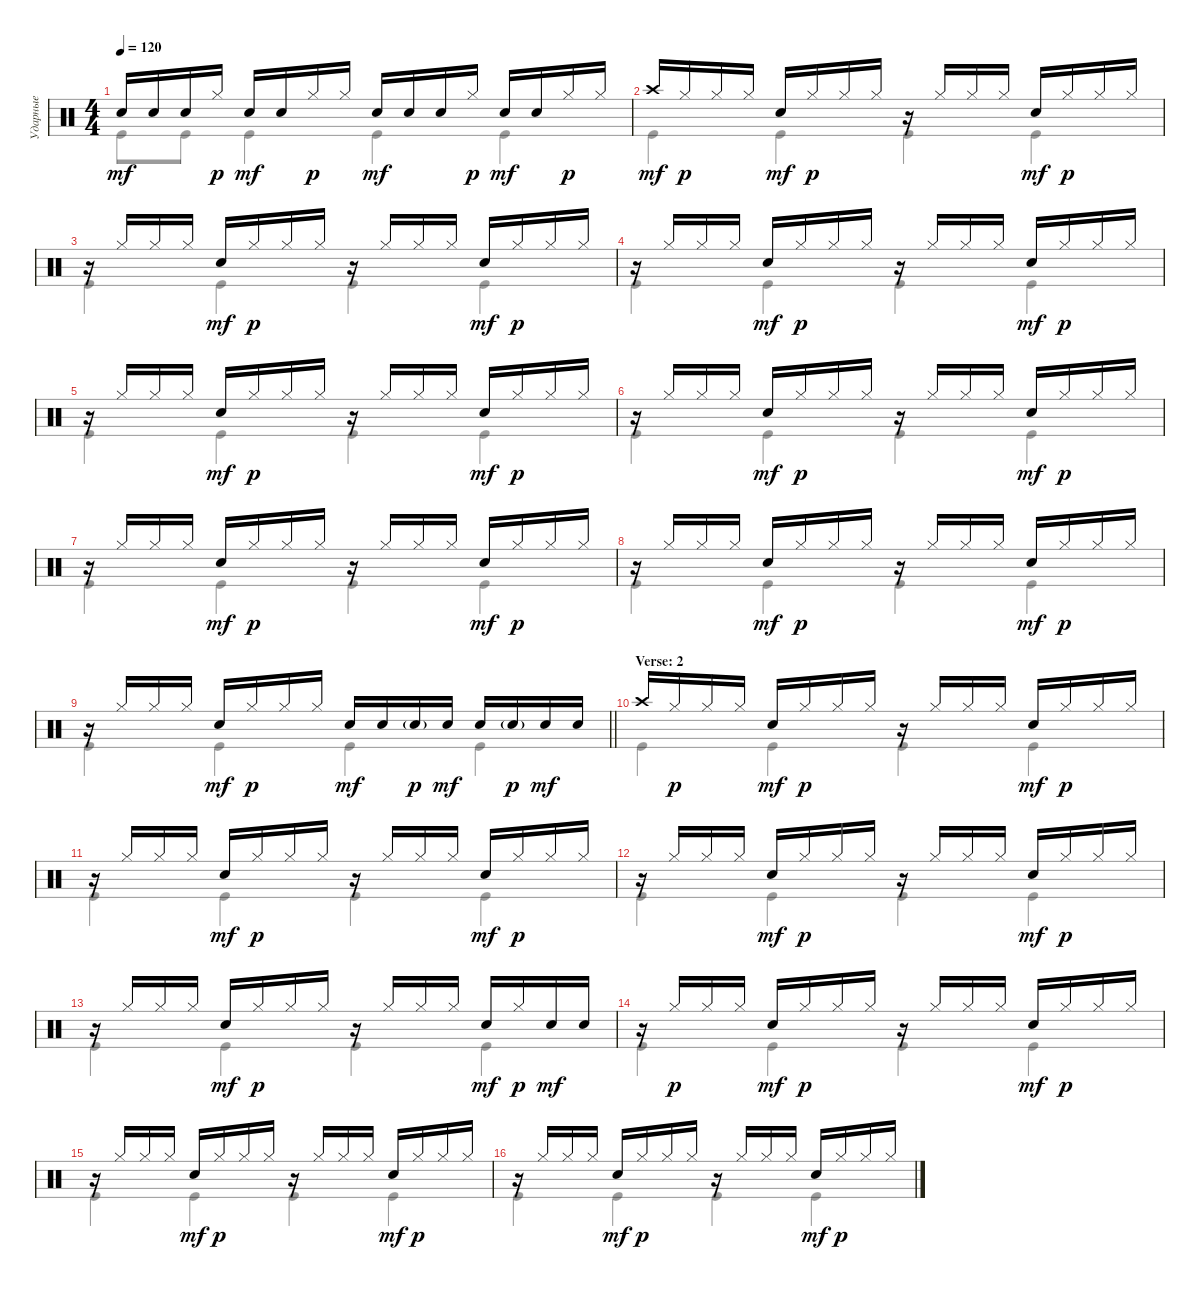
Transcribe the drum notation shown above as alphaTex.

\track ("Ударные" "Ударные") {instrument percussion}
\staff {score}
\articulation defaults
\voice
\ts (4 4)
\tempo 120
\clef neutral
\ks c "Snare (hit) 2".16{dy mf} "Snare (hit) 2".16 "Snare (hit) 2".16 "Hi-Hat (closed)".16{dy p} "Snare (hit) 2".16{dy mf} "Snare (hit) 2".16 "Hi-Hat (closed)".16{dy p} "Hi-Hat (closed)".16 "Snare (hit) 2".16{dy mf} "Snare (hit) 2".16 "Snare (hit) 2".16 "Hi-Hat (closed)".16{dy p} "Snare (hit) 2".16{dy mf} "Snare (hit) 2".16 "Hi-Hat (closed)".16{dy p} "Hi-Hat (closed)".16
|
"Crash high (hit)".16{dy mf} "Hi-Hat (closed)".16{dy p} "Hi-Hat (closed)".16 "Hi-Hat (closed)".16 "Snare (hit) 2".16{dy mf} "Hi-Hat (closed)".16{dy p} "Hi-Hat (closed)".16 "Hi-Hat (closed)".16 r.16 "Hi-Hat (closed)".16 "Hi-Hat (closed)".16 "Hi-Hat (closed)".16 "Snare (hit) 2".16{dy mf} "Hi-Hat (closed)".16{dy p} "Hi-Hat (closed)".16 "Hi-Hat (closed)".16 |
r.16 "Hi-Hat (closed)".16 "Hi-Hat (closed)".16 "Hi-Hat (closed)".16 "Snare (hit) 2".16{dy mf} "Hi-Hat (closed)".16{dy p} "Hi-Hat (closed)".16 "Hi-Hat (closed)".16 r.16 "Hi-Hat (closed)".16 "Hi-Hat (closed)".16 "Hi-Hat (closed)".16 "Snare (hit) 2".16{dy mf} "Hi-Hat (closed)".16{dy p} "Hi-Hat (closed)".16 "Hi-Hat (closed)".16 |
r.16 "Hi-Hat (closed)".16 "Hi-Hat (closed)".16 "Hi-Hat (closed)".16 "Snare (hit) 2".16{dy mf} "Hi-Hat (closed)".16{dy p} "Hi-Hat (closed)".16 "Hi-Hat (closed)".16 r.16 "Hi-Hat (closed)".16 "Hi-Hat (closed)".16 "Hi-Hat (closed)".16 "Snare (hit) 2".16{dy mf} "Hi-Hat (closed)".16{dy p} "Hi-Hat (closed)".16 "Hi-Hat (closed)".16 |
r.16 "Hi-Hat (closed)".16 "Hi-Hat (closed)".16 "Hi-Hat (closed)".16 "Snare (hit) 2".16{dy mf} "Hi-Hat (closed)".16{dy p} "Hi-Hat (closed)".16 "Hi-Hat (closed)".16 r.16 "Hi-Hat (closed)".16 "Hi-Hat (closed)".16 "Hi-Hat (closed)".16 "Snare (hit) 2".16{dy mf} "Hi-Hat (closed)".16{dy p} "Hi-Hat (closed)".16 "Hi-Hat (closed)".16 |
r.16 "Hi-Hat (closed)".16 "Hi-Hat (closed)".16 "Hi-Hat (closed)".16 "Snare (hit) 2".16{dy mf} "Hi-Hat (closed)".16{dy p} "Hi-Hat (closed)".16 "Hi-Hat (closed)".16 r.16 "Hi-Hat (closed)".16 "Hi-Hat (closed)".16 "Hi-Hat (closed)".16 "Snare (hit) 2".16{dy mf} "Hi-Hat (closed)".16{dy p} "Hi-Hat (closed)".16 "Hi-Hat (closed)".16 |
r.16 "Hi-Hat (closed)".16 "Hi-Hat (closed)".16 "Hi-Hat (closed)".16 "Snare (hit) 2".16{dy mf} "Hi-Hat (closed)".16{dy p} "Hi-Hat (closed)".16 "Hi-Hat (closed)".16 r.16 "Hi-Hat (closed)".16 "Hi-Hat (closed)".16 "Hi-Hat (closed)".16 "Snare (hit) 2".16{dy mf} "Hi-Hat (closed)".16{dy p} "Hi-Hat (closed)".16 "Hi-Hat (closed)".16 |
r.16 "Hi-Hat (closed)".16 "Hi-Hat (closed)".16 "Hi-Hat (closed)".16 "Snare (hit) 2".16{dy mf} "Hi-Hat (closed)".16{dy p} "Hi-Hat (closed)".16 "Hi-Hat (closed)".16 r.16 "Hi-Hat (closed)".16 "Hi-Hat (closed)".16 "Hi-Hat (closed)".16 "Snare (hit) 2".16{dy mf} "Hi-Hat (closed)".16{dy p} "Hi-Hat (closed)".16 "Hi-Hat (closed)".16 |
\barLineRight lightlight
r.16 "Hi-Hat (closed)".16 "Hi-Hat (closed)".16 "Hi-Hat (closed)".16 "Snare (hit) 2".16{dy mf} "Hi-Hat (closed)".16{dy p} "Hi-Hat (closed)".16 "Hi-Hat (closed)".16 "Snare (hit) 2".16{dy mf} "Snare (hit) 2".16 "Snare (hit) 2"{g}.16{dy p} "Snare (hit) 2".16{dy mf} "Snare (hit) 2".16 "Snare (hit) 2"{g}.16{dy p} "Snare (hit) 2".16{dy mf} "Snare (hit) 2".16 |
\section ("" "Verse: 2")
"Crash high (hit)".16 "Hi-Hat (closed)".16{dy p} "Hi-Hat (closed)".16 "Hi-Hat (closed)".16 "Snare (hit) 2".16{dy mf} "Hi-Hat (closed)".16{dy p} "Hi-Hat (closed)".16 "Hi-Hat (closed)".16 r.16 "Hi-Hat (closed)".16 "Hi-Hat (closed)".16 "Hi-Hat (closed)".16 "Snare (hit) 2".16{dy mf} "Hi-Hat (closed)".16{dy p} "Hi-Hat (closed)".16 "Hi-Hat (closed)".16 |
r.16 "Hi-Hat (closed)".16 "Hi-Hat (closed)".16 "Hi-Hat (closed)".16 "Snare (hit) 2".16{dy mf} "Hi-Hat (closed)".16{dy p} "Hi-Hat (closed)".16 "Hi-Hat (closed)".16 r.16 "Hi-Hat (closed)".16 "Hi-Hat (closed)".16 "Hi-Hat (closed)".16 "Snare (hit) 2".16{dy mf} "Hi-Hat (closed)".16{dy p} "Hi-Hat (closed)".16 "Hi-Hat (closed)".16 |
r.16 "Hi-Hat (closed)".16 "Hi-Hat (closed)".16 "Hi-Hat (closed)".16 "Snare (hit) 2".16{dy mf} "Hi-Hat (closed)".16{dy p} "Hi-Hat (closed)".16 "Hi-Hat (closed)".16 r.16 "Hi-Hat (closed)".16 "Hi-Hat (closed)".16 "Hi-Hat (closed)".16 "Snare (hit) 2".16{dy mf} "Hi-Hat (closed)".16{dy p} "Hi-Hat (closed)".16 "Hi-Hat (closed)".16 |
r.16 "Hi-Hat (closed)".16 "Hi-Hat (closed)".16 "Hi-Hat (closed)".16 "Snare (hit) 2".16{dy mf} "Hi-Hat (closed)".16{dy p} "Hi-Hat (closed)".16 "Hi-Hat (closed)".16 r.16 "Hi-Hat (closed)".16 "Hi-Hat (closed)".16 "Hi-Hat (closed)".16 "Snare (hit) 2".16{dy mf} "Hi-Hat (closed)".16{dy p} "Snare (hit) 2".16{dy mf} "Snare (hit) 2".16 |
r.16 "Hi-Hat (closed)".16{dy p} "Hi-Hat (closed)".16 "Hi-Hat (closed)".16 "Snare (hit) 2".16{dy mf} "Hi-Hat (closed)".16{dy p} "Hi-Hat (closed)".16 "Hi-Hat (closed)".16 r.16 "Hi-Hat (closed)".16 "Hi-Hat (closed)".16 "Hi-Hat (closed)".16 "Snare (hit) 2".16{dy mf} "Hi-Hat (closed)".16{dy p} "Hi-Hat (closed)".16 "Hi-Hat (closed)".16 |
r.16 "Hi-Hat (closed)".16 "Hi-Hat (closed)".16 "Hi-Hat (closed)".16 "Snare (hit) 2".16{dy mf} "Hi-Hat (closed)".16{dy p} "Hi-Hat (closed)".16 "Hi-Hat (closed)".16 r.16 "Hi-Hat (closed)".16 "Hi-Hat (closed)".16 "Hi-Hat (closed)".16 "Snare (hit) 2".16{dy mf} "Hi-Hat (closed)".16{dy p} "Hi-Hat (closed)".16 "Hi-Hat (closed)".16 |
r.16 "Hi-Hat (closed)".16 "Hi-Hat (closed)".16 "Hi-Hat (closed)".16 "Snare (hit) 2".16{dy mf} "Hi-Hat (closed)".16{dy p} "Hi-Hat (closed)".16 "Hi-Hat (closed)".16 r.16 "Hi-Hat (closed)".16 "Hi-Hat (closed)".16 "Hi-Hat (closed)".16 "Snare (hit) 2".16{dy mf} "Hi-Hat (closed)".16{dy p} "Hi-Hat (closed)".16 "Hi-Hat (closed)".16
\voice
\clef neutral
\ottava regular
\simile none
\ks c "Kick (hit)".8{dy mf} "Kick (hit)".8 "Kick (hit)".4 "Kick (hit)".4 "Kick (hit)".4
|
"Kick (hit)".4 "Kick (hit)".4 "Kick (hit)".4 "Kick (hit)".4 |
"Kick (hit)".4 "Kick (hit)".4 "Kick (hit)".4 "Kick (hit)".4 |
"Kick (hit)".4 "Kick (hit)".4 "Kick (hit)".4 "Kick (hit)".4 |
"Kick (hit)".4 "Kick (hit)".4 "Kick (hit)".4 "Kick (hit)".4 |
"Kick (hit)".4 "Kick (hit)".4 "Kick (hit)".4 "Kick (hit)".4 |
"Kick (hit)".4 "Kick (hit)".4 "Kick (hit)".4 "Kick (hit)".4 |
"Kick (hit)".4 "Kick (hit)".4 "Kick (hit)".4 "Kick (hit)".4 |
\barLineRight lightlight "Kick (hit)".4 "Kick (hit)".4 "Kick (hit)".4 "Kick (hit)".4
|
"Kick (hit)".4 "Kick (hit)".4 "Kick (hit)".4 "Kick (hit)".4 |
"Kick (hit)".4 "Kick (hit)".4 "Kick (hit)".4 "Kick (hit)".4 |
"Kick (hit)".4 "Kick (hit)".4 "Kick (hit)".4 "Kick (hit)".4 |
"Kick (hit)".4 "Kick (hit)".4 "Kick (hit)".4 "Kick (hit)".4 |
"Kick (hit)".4 "Kick (hit)".4 "Kick (hit)".4 "Kick (hit)".4 |
"Kick (hit)".4 "Kick (hit)".4 "Kick (hit)".4 "Kick (hit)".4 |
"Kick (hit)".4 "Kick (hit)".4 "Kick (hit)".4 "Kick (hit)".4
